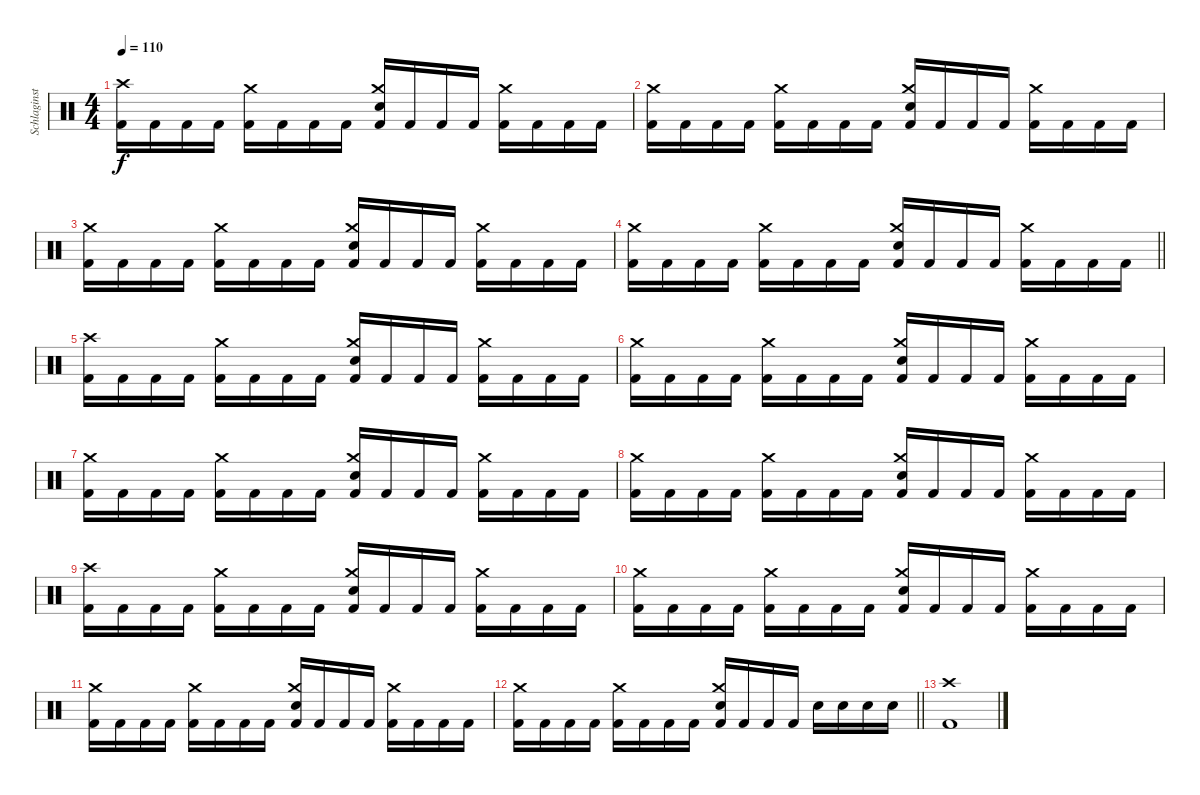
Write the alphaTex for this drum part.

\track ("Schlaginstrumente - Auswahl" "Schlaginst") {instrument percussion}
\staff {score}
\articulation defaults
\ts (4 4)
\tempo 110
\clef neutral
\ks c
("Crash high (hit)" "Kick (hit) 2").16{dy f} "Kick (hit) 2".16 "Kick (hit) 2".16 "Kick (hit) 2".16 ("Crash medium (hit)" "Kick (hit) 2").16 "Kick (hit) 2".16 "Kick (hit) 2".16 "Kick (hit) 2".16 ("Crash medium (hit)" "Electric Snare (hit)" "Kick (hit) 2").16 "Kick (hit) 2".16 "Kick (hit) 2".16 "Kick (hit) 2".16 ("Crash medium (hit)" "Kick (hit) 2").16 "Kick (hit) 2".16 "Kick (hit) 2".16 "Kick (hit) 2".16 |
("Crash medium (hit)" "Kick (hit) 2").16 "Kick (hit) 2".16 "Kick (hit) 2".16 "Kick (hit) 2".16 ("Crash medium (hit)" "Kick (hit) 2").16 "Kick (hit) 2".16 "Kick (hit) 2".16 "Kick (hit) 2".16 ("Crash medium (hit)" "Electric Snare (hit)" "Kick (hit) 2").16 "Kick (hit) 2".16 "Kick (hit) 2".16 "Kick (hit) 2".16 ("Crash medium (hit)" "Kick (hit) 2").16 "Kick (hit) 2".16 "Kick (hit) 2".16 "Kick (hit) 2".16 |
("Crash medium (hit)" "Kick (hit) 2").16 "Kick (hit) 2".16 "Kick (hit) 2".16 "Kick (hit) 2".16 ("Crash medium (hit)" "Kick (hit) 2").16 "Kick (hit) 2".16 "Kick (hit) 2".16 "Kick (hit) 2".16 ("Crash medium (hit)" "Electric Snare (hit)" "Kick (hit) 2").16 "Kick (hit) 2".16 "Kick (hit) 2".16 "Kick (hit) 2".16 ("Crash medium (hit)" "Kick (hit) 2").16 "Kick (hit) 2".16 "Kick (hit) 2".16 "Kick (hit) 2".16 |
\barLineRight lightlight
("Crash medium (hit)" "Kick (hit) 2").16 "Kick (hit) 2".16 "Kick (hit) 2".16 "Kick (hit) 2".16 ("Crash medium (hit)" "Kick (hit) 2").16 "Kick (hit) 2".16 "Kick (hit) 2".16 "Kick (hit) 2".16 ("Crash medium (hit)" "Electric Snare (hit)" "Kick (hit) 2").16 "Kick (hit) 2".16 "Kick (hit) 2".16 "Kick (hit) 2".16 ("Crash medium (hit)" "Kick (hit) 2").16 "Kick (hit) 2".16 "Kick (hit) 2".16 "Kick (hit) 2".16 |
("Crash high (hit)" "Kick (hit) 2").16 "Kick (hit) 2".16 "Kick (hit) 2".16 "Kick (hit) 2".16 ("Crash medium (hit)" "Kick (hit) 2").16 "Kick (hit) 2".16 "Kick (hit) 2".16 "Kick (hit) 2".16 ("Crash medium (hit)" "Electric Snare (hit)" "Kick (hit) 2").16 "Kick (hit) 2".16 "Kick (hit) 2".16 "Kick (hit) 2".16 ("Crash medium (hit)" "Kick (hit) 2").16 "Kick (hit) 2".16 "Kick (hit) 2".16 "Kick (hit) 2".16 |
("Crash medium (hit)" "Kick (hit) 2").16 "Kick (hit) 2".16 "Kick (hit) 2".16 "Kick (hit) 2".16 ("Crash medium (hit)" "Kick (hit) 2").16 "Kick (hit) 2".16 "Kick (hit) 2".16 "Kick (hit) 2".16 ("Crash medium (hit)" "Electric Snare (hit)" "Kick (hit) 2").16 "Kick (hit) 2".16 "Kick (hit) 2".16 "Kick (hit) 2".16 ("Crash medium (hit)" "Kick (hit) 2").16 "Kick (hit) 2".16 "Kick (hit) 2".16 "Kick (hit) 2".16 |
("Crash medium (hit)" "Kick (hit) 2").16 "Kick (hit) 2".16 "Kick (hit) 2".16 "Kick (hit) 2".16 ("Crash medium (hit)" "Kick (hit) 2").16 "Kick (hit) 2".16 "Kick (hit) 2".16 "Kick (hit) 2".16 ("Crash medium (hit)" "Electric Snare (hit)" "Kick (hit) 2").16 "Kick (hit) 2".16 "Kick (hit) 2".16 "Kick (hit) 2".16 ("Crash medium (hit)" "Kick (hit) 2").16 "Kick (hit) 2".16 "Kick (hit) 2".16 "Kick (hit) 2".16 |
("Crash medium (hit)" "Kick (hit) 2").16 "Kick (hit) 2".16 "Kick (hit) 2".16 "Kick (hit) 2".16 ("Crash medium (hit)" "Kick (hit) 2").16 "Kick (hit) 2".16 "Kick (hit) 2".16 "Kick (hit) 2".16 ("Crash medium (hit)" "Electric Snare (hit)" "Kick (hit) 2").16 "Kick (hit) 2".16 "Kick (hit) 2".16 "Kick (hit) 2".16 ("Crash medium (hit)" "Kick (hit) 2").16 "Kick (hit) 2".16 "Kick (hit) 2".16 "Kick (hit) 2".16 |
("Crash high (hit)" "Kick (hit) 2").16 "Kick (hit) 2".16 "Kick (hit) 2".16 "Kick (hit) 2".16 ("Crash medium (hit)" "Kick (hit) 2").16 "Kick (hit) 2".16 "Kick (hit) 2".16 "Kick (hit) 2".16 ("Crash medium (hit)" "Electric Snare (hit)" "Kick (hit) 2").16 "Kick (hit) 2".16 "Kick (hit) 2".16 "Kick (hit) 2".16 ("Crash medium (hit)" "Kick (hit) 2").16 "Kick (hit) 2".16 "Kick (hit) 2".16 "Kick (hit) 2".16 |
("Crash medium (hit)" "Kick (hit) 2").16 "Kick (hit) 2".16 "Kick (hit) 2".16 "Kick (hit) 2".16 ("Crash medium (hit)" "Kick (hit) 2").16 "Kick (hit) 2".16 "Kick (hit) 2".16 "Kick (hit) 2".16 ("Crash medium (hit)" "Electric Snare (hit)" "Kick (hit) 2").16 "Kick (hit) 2".16 "Kick (hit) 2".16 "Kick (hit) 2".16 ("Crash medium (hit)" "Kick (hit) 2").16 "Kick (hit) 2".16 "Kick (hit) 2".16 "Kick (hit) 2".16 |
("Crash medium (hit)" "Kick (hit) 2").16 "Kick (hit) 2".16 "Kick (hit) 2".16 "Kick (hit) 2".16 ("Crash medium (hit)" "Kick (hit) 2").16 "Kick (hit) 2".16 "Kick (hit) 2".16 "Kick (hit) 2".16 ("Crash medium (hit)" "Electric Snare (hit)" "Kick (hit) 2").16 "Kick (hit) 2".16 "Kick (hit) 2".16 "Kick (hit) 2".16 ("Crash medium (hit)" "Kick (hit) 2").16 "Kick (hit) 2".16 "Kick (hit) 2".16 "Kick (hit) 2".16 |
\barLineRight lightlight
("Crash medium (hit)" "Kick (hit) 2").16 "Kick (hit) 2".16 "Kick (hit) 2".16 "Kick (hit) 2".16 ("Crash medium (hit)" "Kick (hit) 2").16 "Kick (hit) 2".16 "Kick (hit) 2".16 "Kick (hit) 2".16 ("Crash medium (hit)" "Electric Snare (hit)" "Kick (hit) 2").16 "Kick (hit) 2".16 "Kick (hit) 2".16 "Kick (hit) 2".16 "Electric Snare (hit)".16 "Electric Snare (hit)".16 "Electric Snare (hit)".16 "Electric Snare (hit)".16 |
("Crash high (hit)" "Kick (hit) 2").1
